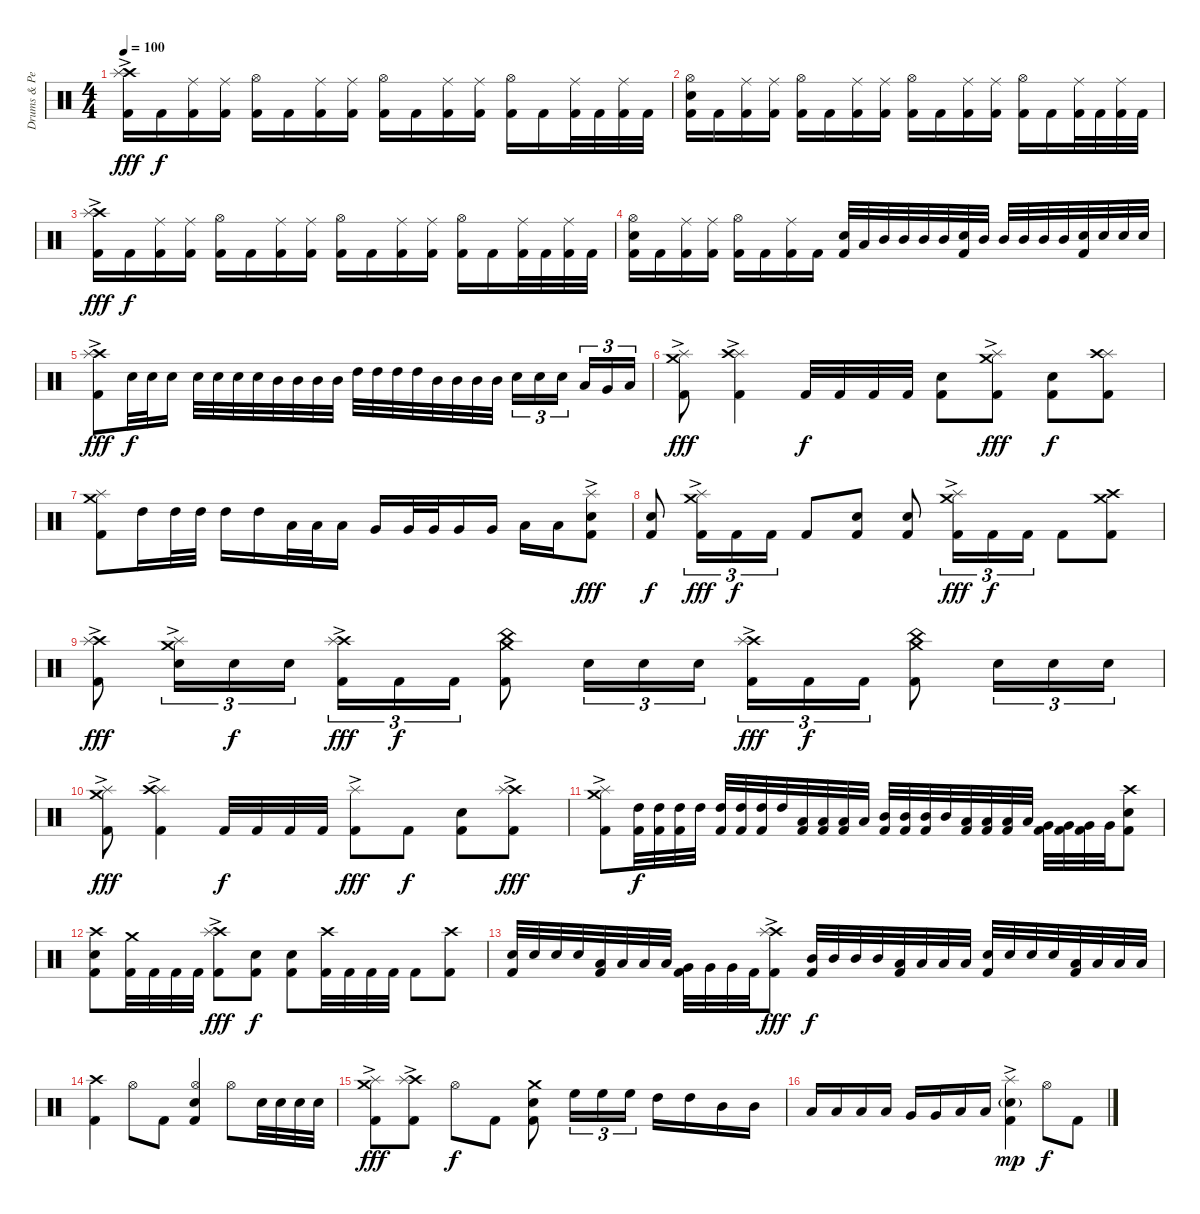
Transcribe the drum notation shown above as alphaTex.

\track ("Drums & Percussion" "Drums & Pe") {instrument percussion}
\staff {score}
\articulation defaults
\ts (4 4)
\tempo 100
\clef neutral
\ks c
("Crash high (hit)" "Splash (hit)"{ac} "Kick (hit) 2").16{dy fff} "Kick (hit) 2".16{dy f} ("Ride (middle)" "Kick (hit) 2").16 ("Ride (middle)" "Kick (hit) 2").16 ("Hi-Hat (open)" "Kick (hit) 2").16 "Kick (hit) 2".16 ("Ride (middle)" "Kick (hit) 2").16 ("Ride (middle)" "Kick (hit) 2").16 ("Hi-Hat (open)" "Kick (hit) 2").16 "Kick (hit) 2".16 ("Ride (middle)" "Kick (hit) 2").16 ("Ride (middle)" "Kick (hit) 2").16 ("Hi-Hat (open)" "Kick (hit) 2").16 "Kick (hit) 2".16 ("Ride (middle)" "Kick (hit) 2").32 "Kick (hit) 2".32 ("Ride (middle)" "Kick (hit) 2").32 "Kick (hit) 2".32 |
("Hi-Hat (open)" "Electric Snare (hit)" "Kick (hit) 2").16 "Kick (hit) 2".16 ("Ride (middle)" "Kick (hit) 2").16 ("Ride (middle)" "Kick (hit) 2").16 ("Hi-Hat (open)" "Kick (hit) 2").16 "Kick (hit) 2".16 ("Ride (middle)" "Kick (hit) 2").16 ("Ride (middle)" "Kick (hit) 2").16 ("Hi-Hat (open)" "Kick (hit) 2").16 "Kick (hit) 2".16 ("Ride (middle)" "Kick (hit) 2").16 ("Ride (middle)" "Kick (hit) 2").16 ("Hi-Hat (open)" "Kick (hit) 2").16 "Kick (hit) 2".16 ("Ride (middle)" "Kick (hit) 2").32 "Kick (hit) 2".32 ("Ride (middle)" "Kick (hit) 2").32 "Kick (hit) 2".32 |
("Crash high (hit)" "Splash (hit)"{ac} "Kick (hit) 2").16{dy fff} "Kick (hit) 2".16{dy f} ("Ride (middle)" "Kick (hit) 2").16 ("Ride (middle)" "Kick (hit) 2").16 ("Hi-Hat (open)" "Kick (hit) 2").16 "Kick (hit) 2".16 ("Ride (middle)" "Kick (hit) 2").16 ("Ride (middle)" "Kick (hit) 2").16 ("Hi-Hat (open)" "Kick (hit) 2").16 "Kick (hit) 2".16 ("Ride (middle)" "Kick (hit) 2").16 ("Ride (middle)" "Kick (hit) 2").16 ("Hi-Hat (open)" "Kick (hit) 2").16 "Kick (hit) 2".16 ("Ride (middle)" "Kick (hit) 2").32 "Kick (hit) 2".32 ("Ride (middle)" "Kick (hit) 2").32 "Kick (hit) 2".32 |
("Hi-Hat (open)" "Electric Snare (hit)" "Kick (hit) 2").16 "Kick (hit) 2".16 ("Ride (middle)" "Kick (hit) 2").16 ("Ride (middle)" "Kick (hit) 2").16 ("Hi-Hat (open)" "Kick (hit) 2").16 "Kick (hit) 2".16 ("Ride (middle)" "Kick (hit) 2").16 "Kick (hit) 2".16 ("Electric Snare (hit)" "Kick (hit) 2").32 "Low Tom (hit)".32 "Mid Tom (hit)".32 "Mid Tom (hit)".32 "Mid Tom (hit)".32 "Mid Tom (hit)".32 ("Electric Snare (hit)" "Kick (hit) 2").32 "Mid Tom (hit)".32 "Mid Tom (hit)".32 "Mid Tom (hit)".32 "Mid Tom (hit)".32 "Mid Tom (hit)".32 ("Electric Snare (hit)" "Kick (hit) 2").32 "Electric Snare (hit)".32 "Electric Snare (hit)".32 "Electric Snare (hit)".32 |
("Crash high (hit)" "Splash (hit)"{ac} "Kick (hit) 2").8{dy fff} "Electric Snare (hit)".32{dy f} "Electric Snare (hit)".32 "Electric Snare (hit)".16 "Electric Snare (hit)".32 "Electric Snare (hit)".32 "Electric Snare (hit)".32 "Electric Snare (hit)".32 "Mid Tom (hit)".32 "Mid Tom (hit)".32 "Mid Tom (hit)".32 "Mid Tom (hit)".32 "High Tom (hit)".32 "High Tom (hit)".32 "High Tom (hit)".32 "High Tom (hit)".32 "Mid Tom (hit)".32 "Mid Tom (hit)".32 "Mid Tom (hit)".32 "Mid Tom (hit)".32 "Electric Snare (hit)".16{tu (3 2)} "Electric Snare (hit)".16{tu (3 2)} "Electric Snare (hit)".16{tu (3 2) beam splitsecondary} "Low Tom (hit)".16{tu (3 2)} "Very Low Tom (hit)".16{tu (3 2)} "Low Floor Tom (hit)".16{tu (3 2)} |
("Splash (hit)"{ac} "Crash medium (hit)" "Kick (hit) 2").8{dy fff} ("Splash (hit)"{ac} "Crash high (hit)" "Kick (hit) 2").4 "Kick (hit) 2".32{dy f} "Kick (hit) 2".32 "Kick (hit) 2".32 "Kick (hit) 2".32 ("Electric Snare (hit)" "Kick (hit) 2").8 ("Splash (hit)"{ac} "Crash medium (hit)" "Kick (hit) 2").8{dy fff} ("Electric Snare (hit)" "Kick (hit) 2").8{dy f} ("Splash (hit)" "Crash high (hit)" "Kick (hit) 2").8 |
("Splash (hit)" "Crash medium (hit)" "Kick (hit) 2").8 "High Tom (hit)".16 "High Tom (hit)".32 "High Tom (hit)".32 "High Tom (hit)".16 "High Tom (hit)".16 "Low Tom (hit)".32 "Low Tom (hit)".32 "Low Tom (hit)".16 "Very Low Tom (hit)".16 "Very Low Tom (hit)".32 "Very Low Tom (hit)".32 "Very Low Tom (hit)".16 "Very Low Tom (hit)".16 "Low Floor Tom (hit)".16 "Low Floor Tom (hit)".16 ("Splash (hit)"{ac} "Electric Snare (hit)" "Kick (hit) 2").8{dy fff} |
("Electric Snare (hit)" "Kick (hit) 2").8{dy f} ("Splash (hit)"{ac} "Crash medium (hit)" "Kick (hit) 2").16{tu (3 2) dy fff} "Kick (hit) 2".16{tu (3 2) dy f} "Kick (hit) 2".16{tu (3 2)} "Kick (hit) 2".8 ("Electric Snare (hit)" "Kick (hit) 2").8 ("Electric Snare (hit)" "Kick (hit) 2").8 ("Splash (hit)"{ac} "Crash medium (hit)" "Kick (hit) 2").16{tu (3 2) dy fff} "Kick (hit) 2".16{tu (3 2) dy f} "Kick (hit) 2".16{tu (3 2)} "Kick (hit) 2".8 ("Crash medium (hit)" "Crash high (hit)" "Kick (hit) 2").8 |
("Crash high (hit)" "Splash (hit)"{ac} "Kick (hit) 2").8{dy fff} ("Splash (hit)"{ac} "Crash medium (hit)" "Electric Snare (hit)").16{tu (3 2)} "Electric Snare (hit)".16{tu (3 2) dy f} "Electric Snare (hit)".16{tu (3 2)} ("Crash high (hit)" "Splash (hit)"{ac} "Kick (hit) 2").16{tu (3 2) dy fff} "Kick (hit) 2".16{tu (3 2) dy f} "Kick (hit) 2".16{tu (3 2)} ("Crash medium (hit)" "China (hit)" "Kick (hit) 2").8 "Electric Snare (hit)".16{tu (3 2)} "Electric Snare (hit)".16{tu (3 2)} "Electric Snare (hit)".16{tu (3 2) beam splitsecondary} ("Crash high (hit)" "Splash (hit)"{ac} "Kick (hit) 2").16{tu (3 2) dy fff} "Kick (hit) 2".16{tu (3 2) dy f} "Kick (hit) 2".16{tu (3 2)} ("Crash medium (hit)" "China (hit)" "Kick (hit) 2").8 "Electric Snare (hit)".16{tu (3 2)} "Electric Snare (hit)".16{tu (3 2)} "Electric Snare (hit)".16{tu (3 2)} |
("Splash (hit)"{ac} "Crash medium (hit)" "Kick (hit) 2").8{dy fff} ("Splash (hit)"{ac} "Crash high (hit)" "Kick (hit) 2").4 "Kick (hit) 2".32{dy f} "Kick (hit) 2".32 "Kick (hit) 2".32 "Kick (hit) 2".32 ("Splash (hit)"{ac} "Kick (hit) 2").8{dy fff} "Kick (hit) 2".8{dy f} ("Electric Snare (hit)" "Kick (hit) 2").8 ("Crash high (hit)" "Splash (hit)"{ac} "Kick (hit) 2").8{dy fff} |
("Crash medium (hit)" "Splash (hit)"{ac} "Kick (hit) 2").8 ("High Tom (hit)" "Kick (hit) 2").32{dy f} ("High Tom (hit)" "Kick (hit) 2").32 ("High Tom (hit)" "Kick (hit) 2").32 "High Tom (hit)".32 ("High Tom (hit)" "Kick (hit) 2").32 ("High Tom (hit)" "Kick (hit) 2").32 ("High Tom (hit)" "Kick (hit) 2").32 "High Tom (hit)".32 ("Low Tom (hit)" "Kick (hit) 2").32 ("Low Tom (hit)" "Kick (hit) 2").32 ("Low Tom (hit)" "Kick (hit) 2").32 "Low Tom (hit)".32 ("Mid Tom (hit)" "Kick (hit) 2").32 ("Mid Tom (hit)" "Kick (hit) 2").32 ("Mid Tom (hit)" "Kick (hit) 2").32 "Mid Tom (hit)".32 ("Low Tom (hit)" "Kick (hit) 2").32 ("Low Tom (hit)" "Kick (hit) 2").32 ("Low Tom (hit)" "Kick (hit) 2").32 "Low Tom (hit)".32 ("Very Low Tom (hit)" "Kick (hit) 2").32 ("Very Low Tom (hit)" "Kick (hit) 2").32 ("Very Low Tom (hit)" "Kick (hit) 2").32 "Very Low Tom (hit)".32 ("Crash high (hit)" "Electric Snare (hit)" "Kick (hit) 2").8 |
("Crash high (hit)" "Electric Snare (hit)" "Kick (hit) 2").8 ("Crash medium (hit)" "Kick (hit) 2").32 "Kick (hit) 2".32 "Kick (hit) 2".32 "Kick (hit) 2".32 ("Crash high (hit)" "Splash (hit)"{ac} "Kick (hit) 2").8{dy fff} ("Electric Snare (hit)" "Kick (hit) 2").8{dy f} ("Electric Snare (hit)" "Kick (hit) 2").8 ("Crash high (hit)" "Kick (hit) 2").32 "Kick (hit) 2".32 "Kick (hit) 2".32 "Kick (hit) 2".32 "Kick (hit) 2".8 ("Crash high (hit)" "Kick (hit) 2").8 |
("Electric Snare (hit)" "Kick (hit) 2").32 "Electric Snare (hit)".32 "Electric Snare (hit)".32 "Electric Snare (hit)".32 ("Low Tom (hit)" "Kick (hit) 2").32 "Low Tom (hit)".32 "Low Tom (hit)".32 "Low Tom (hit)".32 ("Very Low Tom (hit)" "Kick (hit) 2").32 "Very Low Tom (hit)".32 "Very Low Tom (hit)".32 "Kick (hit) 2".32 ("Crash high (hit)" "Splash (hit)"{ac} "Kick (hit) 2").8{dy fff} ("Mid Tom (hit)" "Kick (hit) 2").32{dy f} "Mid Tom (hit)".32 "Mid Tom (hit)".32 "Mid Tom (hit)".32 ("Low Tom (hit)" "Kick (hit) 2").32 "Low Tom (hit)".32 "Low Tom (hit)".32 "Low Tom (hit)".32 ("Electric Snare (hit)" "Kick (hit) 2").32 "Electric Snare (hit)".32 "Electric Snare (hit)".32 "Electric Snare (hit)".32 ("Low Floor Tom (hit)" "Kick (hit) 2").32 "Low Floor Tom (hit)".32 "Low Floor Tom (hit)".32 "Low Floor Tom (hit)".32 |
("Crash high (hit)" "Kick (hit) 2").4 "Hi-Hat (open)".8 "Kick (hit) 2".8 ("Hi-Hat (open)" "Electric Snare (hit)" "Kick (hit) 2").4 "Hi-Hat (open)".8 "Electric Snare (hit)".32 "Electric Snare (hit)".32 "Electric Snare (hit)".32 "Electric Snare (hit)".32 |
("Crash medium (hit)" "Splash (hit)"{ac} "Kick (hit) 2").8{dy fff} ("Crash high (hit)" "Splash (hit)"{ac} "Kick (hit) 2").8 "Hi-Hat (open)".8{dy f} "Kick (hit) 2".8 ("Crash medium (hit)" "Electric Snare (hit)" "Kick (hit) 2").8 "High Floor Tom (hit)".16{tu (3 2)} "High Floor Tom (hit)".16{tu (3 2)} "High Floor Tom (hit)".16{tu (3 2)} "High Tom (hit)".16 "High Tom (hit)".16 "Mid Tom (hit)".16 "Mid Tom (hit)".16 |
"Low Tom (hit)".16 "Low Tom (hit)".16 "Low Tom (hit)".16 "Low Tom (hit)".16 "Very Low Tom (hit)".16 "Very Low Tom (hit)".16 "Low Floor Tom (hit)".16 "Low Floor Tom (hit)".16 ("Splash (hit)"{ac} "Electric Snare (hit)"{g} "Kick (hit) 2").4{dy mp} "Hi-Hat (open)".8{dy f} "Kick (hit) 2".8
